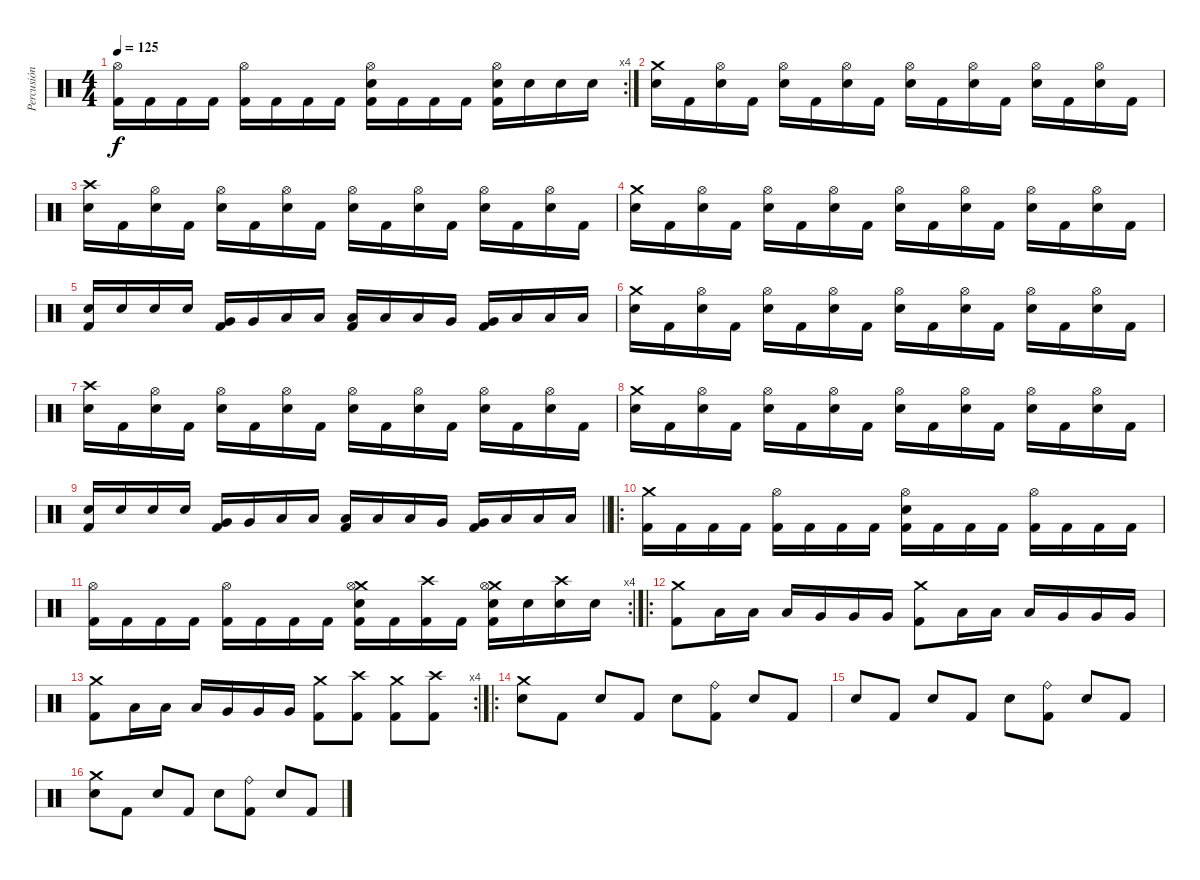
\track ("Percusión" "Percusión") {instrument percussion}
\staff {score}
\articulation defaults
\rc 4
\ts (4 4)
\tempo 125
\clef neutral
\ks c
("Hi-Hat (open)" "Kick (hit) 2").16{dy f} "Kick (hit) 2".16 "Kick (hit) 2".16 "Kick (hit) 2".16 ("Hi-Hat (open)" "Kick (hit) 2").16 "Kick (hit) 2".16 "Kick (hit) 2".16 "Kick (hit) 2".16 ("Hi-Hat (open)" "Electric Snare (hit)" "Kick (hit) 2").16 "Kick (hit) 2".16 "Kick (hit) 2".16 "Kick (hit) 2".16 ("Hi-Hat (open)" "Electric Snare (hit)" "Kick (hit) 2").16 "Electric Snare (hit)".16 "Electric Snare (hit)".16 "Electric Snare (hit)".16 |
("Crash medium (hit)" "Electric Snare (hit)").16 "Kick (hit) 2".16 ("Hi-Hat (open)" "Electric Snare (hit)").16 "Kick (hit) 2".16 ("Hi-Hat (open)" "Electric Snare (hit)").16 "Kick (hit) 2".16 ("Hi-Hat (open)" "Electric Snare (hit)").16 "Kick (hit) 2".16 ("Hi-Hat (open)" "Electric Snare (hit)").16 "Kick (hit) 2".16 ("Hi-Hat (open)" "Electric Snare (hit)").16 "Kick (hit) 2".16 ("Hi-Hat (open)" "Electric Snare (hit)").16 "Kick (hit) 2".16 ("Hi-Hat (open)" "Electric Snare (hit)").16 "Kick (hit) 2".16 |
("Crash high (hit)" "Electric Snare (hit)").16 "Kick (hit) 2".16 ("Hi-Hat (open)" "Electric Snare (hit)").16 "Kick (hit) 2".16 ("Hi-Hat (open)" "Electric Snare (hit)").16 "Kick (hit) 2".16 ("Hi-Hat (open)" "Electric Snare (hit)").16 "Kick (hit) 2".16 ("Hi-Hat (open)" "Electric Snare (hit)").16 "Kick (hit) 2".16 ("Hi-Hat (open)" "Electric Snare (hit)").16 "Kick (hit) 2".16 ("Hi-Hat (open)" "Electric Snare (hit)").16 "Kick (hit) 2".16 ("Hi-Hat (open)" "Electric Snare (hit)").16 "Kick (hit) 2".16 |
("Crash medium (hit)" "Electric Snare (hit)").16 "Kick (hit) 2".16 ("Hi-Hat (open)" "Electric Snare (hit)").16 "Kick (hit) 2".16 ("Hi-Hat (open)" "Electric Snare (hit)").16 "Kick (hit) 2".16 ("Hi-Hat (open)" "Electric Snare (hit)").16 "Kick (hit) 2".16 ("Hi-Hat (open)" "Electric Snare (hit)").16 "Kick (hit) 2".16 ("Hi-Hat (open)" "Electric Snare (hit)").16 "Kick (hit) 2".16 ("Hi-Hat (open)" "Electric Snare (hit)").16 "Kick (hit) 2".16 ("Hi-Hat (open)" "Electric Snare (hit)").16 "Kick (hit) 2".16 |
("Electric Snare (hit)" "Kick (hit) 2").16 "Electric Snare (hit)".16 "Electric Snare (hit)".16 "Electric Snare (hit)".16 ("Very Low Tom (hit)" "Kick (hit) 2").16 "Very Low Tom (hit)".16 "Low Floor Tom (hit)".16 "Low Floor Tom (hit)".16 ("Low Tom (hit)" "Kick (hit) 2").16 "Low Tom (hit)".16 "Low Tom (hit)".16 "Very Low Tom (hit)".16 ("Very Low Tom (hit)" "Kick (hit) 2").16 "Low Floor Tom (hit)".16 "Low Floor Tom (hit)".16 "Low Floor Tom (hit)".16 |
("Crash medium (hit)" "Electric Snare (hit)").16 "Kick (hit) 2".16 ("Hi-Hat (open)" "Electric Snare (hit)").16 "Kick (hit) 2".16 ("Hi-Hat (open)" "Electric Snare (hit)").16 "Kick (hit) 2".16 ("Hi-Hat (open)" "Electric Snare (hit)").16 "Kick (hit) 2".16 ("Hi-Hat (open)" "Electric Snare (hit)").16 "Kick (hit) 2".16 ("Hi-Hat (open)" "Electric Snare (hit)").16 "Kick (hit) 2".16 ("Hi-Hat (open)" "Electric Snare (hit)").16 "Kick (hit) 2".16 ("Hi-Hat (open)" "Electric Snare (hit)").16 "Kick (hit) 2".16 |
("Crash high (hit)" "Electric Snare (hit)").16 "Kick (hit) 2".16 ("Hi-Hat (open)" "Electric Snare (hit)").16 "Kick (hit) 2".16 ("Hi-Hat (open)" "Electric Snare (hit)").16 "Kick (hit) 2".16 ("Hi-Hat (open)" "Electric Snare (hit)").16 "Kick (hit) 2".16 ("Hi-Hat (open)" "Electric Snare (hit)").16 "Kick (hit) 2".16 ("Hi-Hat (open)" "Electric Snare (hit)").16 "Kick (hit) 2".16 ("Hi-Hat (open)" "Electric Snare (hit)").16 "Kick (hit) 2".16 ("Hi-Hat (open)" "Electric Snare (hit)").16 "Kick (hit) 2".16 |
("Crash medium (hit)" "Electric Snare (hit)").16 "Kick (hit) 2".16 ("Hi-Hat (open)" "Electric Snare (hit)").16 "Kick (hit) 2".16 ("Hi-Hat (open)" "Electric Snare (hit)").16 "Kick (hit) 2".16 ("Hi-Hat (open)" "Electric Snare (hit)").16 "Kick (hit) 2".16 ("Hi-Hat (open)" "Electric Snare (hit)").16 "Kick (hit) 2".16 ("Hi-Hat (open)" "Electric Snare (hit)").16 "Kick (hit) 2".16 ("Hi-Hat (open)" "Electric Snare (hit)").16 "Kick (hit) 2".16 ("Hi-Hat (open)" "Electric Snare (hit)").16 "Kick (hit) 2".16 |
\barLineRight lightlight
("Electric Snare (hit)" "Kick (hit) 2").16 "Electric Snare (hit)".16 "Electric Snare (hit)".16 "Electric Snare (hit)".16 ("Very Low Tom (hit)" "Kick (hit) 2").16 "Very Low Tom (hit)".16 "Low Floor Tom (hit)".16 "Low Floor Tom (hit)".16 ("Low Tom (hit)" "Kick (hit) 2").16 "Low Tom (hit)".16 "Low Tom (hit)".16 "Very Low Tom (hit)".16 ("Very Low Tom (hit)" "Kick (hit) 2").16 "Low Floor Tom (hit)".16 "Low Floor Tom (hit)".16 "Low Floor Tom (hit)".16 |
\ro
("Crash medium (hit)" "Kick (hit) 2").16 "Kick (hit) 2".16 "Kick (hit) 2".16 "Kick (hit) 2".16 ("Hi-Hat (open)" "Kick (hit) 2").16 "Kick (hit) 2".16 "Kick (hit) 2".16 "Kick (hit) 2".16 ("Hi-Hat (open)" "Electric Snare (hit)" "Kick (hit) 2").16 "Kick (hit) 2".16 "Kick (hit) 2".16 "Kick (hit) 2".16 ("Hi-Hat (open)" "Kick (hit) 2").16 "Kick (hit) 2".16 "Kick (hit) 2".16 "Kick (hit) 2".16 |
\rc 4
("Hi-Hat (open)" "Kick (hit) 2").16 "Kick (hit) 2".16 "Kick (hit) 2".16 "Kick (hit) 2".16 ("Hi-Hat (open)" "Kick (hit) 2").16 "Kick (hit) 2".16 "Kick (hit) 2".16 "Kick (hit) 2".16 ("Crash medium (hit)" "Hi-Hat (open)" "Electric Snare (hit)" "Kick (hit) 2").16 "Kick (hit) 2".16 ("Crash high (hit)" "Kick (hit) 2").16 "Kick (hit) 2".16 ("Crash medium (hit)" "Hi-Hat (open)" "Electric Snare (hit)" "Kick (hit) 2").16 "Electric Snare (hit)".16 ("Crash high (hit)" "Electric Snare (hit)").16 "Electric Snare (hit)".16 |
\ro
("Crash medium (hit)" "Kick (hit) 2").8 "Low Tom (hit)".16 "Low Tom (hit)".16 "Low Tom (hit)".16 "Very Low Tom (hit)".16 "Very Low Tom (hit)".16 "Very Low Tom (hit)".16 ("Crash medium (hit)" "Kick (hit) 2").8 "Low Tom (hit)".16 "Low Tom (hit)".16 "Low Tom (hit)".16 "Very Low Tom (hit)".16 "Very Low Tom (hit)".16 "Very Low Tom (hit)".16 |
\rc 4
("Crash medium (hit)" "Kick (hit) 2").8 "Low Tom (hit)".16 "Low Tom (hit)".16 "Low Tom (hit)".16 "Very Low Tom (hit)".16 "Very Low Tom (hit)".16 "Very Low Tom (hit)".16 ("Crash medium (hit)" "Kick (hit) 2").8 ("Crash high (hit)" "Kick (hit) 2").8 ("Crash medium (hit)" "Kick (hit) 2").8 ("Crash high (hit)" "Kick (hit) 2").8 |
\ro
("Crash medium (hit)" "Electric Snare (hit)").8 "Kick (hit) 2".8 "Electric Snare (hit)".8 "Kick (hit) 2".8 "Electric Snare (hit)".8 ("Ride (bell)" "Kick (hit) 2").8 "Electric Snare (hit)".8 "Kick (hit) 2".8 |
"Electric Snare (hit)".8 "Kick (hit) 2".8 "Electric Snare (hit)".8 "Kick (hit) 2".8 "Electric Snare (hit)".8 ("Ride (bell)" "Kick (hit) 2").8 "Electric Snare (hit)".8 "Kick (hit) 2".8 |
("Crash medium (hit)" "Electric Snare (hit)").8 "Kick (hit) 2".8 "Electric Snare (hit)".8 "Kick (hit) 2".8 "Electric Snare (hit)".8 ("Ride (bell)" "Kick (hit) 2").8 "Electric Snare (hit)".8 "Kick (hit) 2".8
